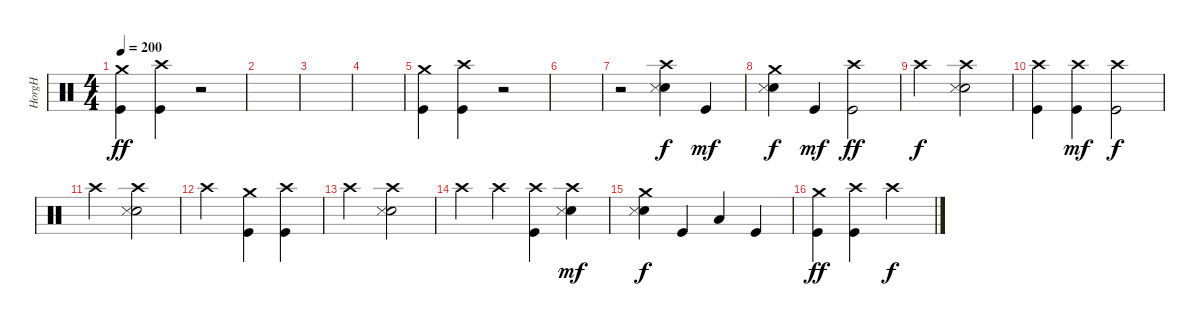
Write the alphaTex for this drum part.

\track ("HorgH" "HorgH") {instrument percussion}
\staff {score}
\articulation defaults
\ts (4 4)
\section ("" "")
\tempo 200
\clef neutral
\ks c
("Crash medium (hit)" "Kick (hit)").4{dy ff} ("Crash high (hit)" "Kick (hit)").4 r.2 |
|
|
|
("Crash medium (hit)" "Kick (hit)").4 ("Crash high (hit)" "Kick (hit)").4 r.2 |
|
r.2 ("Crash high (hit)" "Electric Snare (hit)" "Snare (side stick) 3").4{dy f} "Kick (hit)".4{dy mf} |
("Crash medium (hit)" "Electric Snare (hit)" "Snare (side stick) 3").4{dy f} "Kick (hit)".4{dy mf} ("Crash high (hit)" "Kick (hit)").2{dy ff} |
"Crash high (hit)".2{dy f} ("Crash high (hit)" "Electric Snare (hit)" "Snare (side stick) 3").2 |
("Crash high (hit)" "Kick (hit)").4 ("Crash high (hit)" "Kick (hit)").4{dy mf} ("Crash high (hit)" "Kick (hit)").2{dy f} |
"Crash high (hit)".2 ("Crash high (hit)" "Electric Snare (hit)" "Snare (side stick) 3").2 |
"Crash high (hit)".2 ("Crash medium (hit)" "Kick (hit)").4 ("Crash high (hit)" "Kick (hit)").4 |
"Crash high (hit)".2 ("Crash high (hit)" "Electric Snare (hit)" "Snare (side stick) 3").2 |
"Crash high (hit)".4 "Crash high (hit)".4 ("Crash high (hit)" "Kick (hit)").4 ("Crash high (hit)" "Electric Snare (hit)" "Snare (side stick) 3").4{dy mf} |
("Crash medium (hit)" "Electric Snare (hit)" "Snare (side stick) 3").4{dy f} "Kick (hit)".4 "Low Tom (hit)".4 "Kick (hit)".4 |
("Crash medium (hit)" "Kick (hit)").4{dy ff} ("Crash high (hit)" "Kick (hit)").4 "Crash high (hit)".2{dy f}
